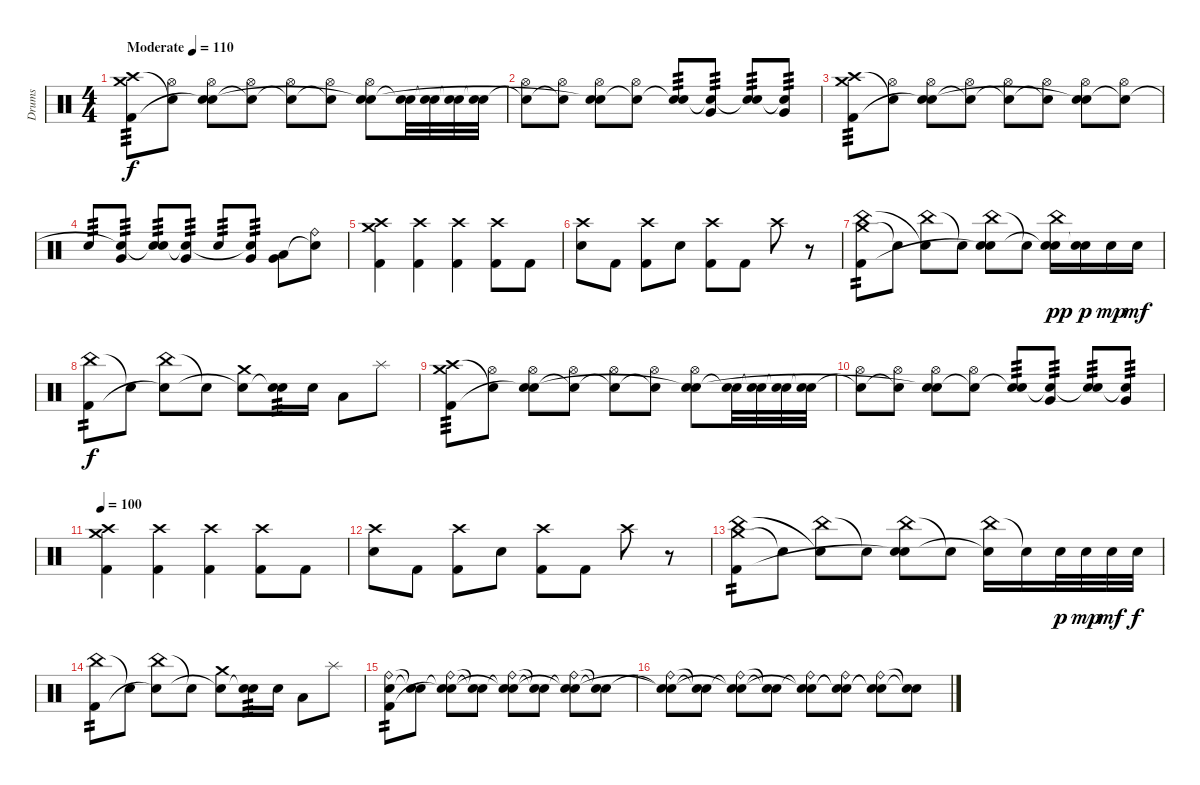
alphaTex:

\track ("Drums" "Drums") {instrument percussion}
\staff {score}
\articulation defaults
\ts (4 4)
\tempo (110 "Moderate")
\clef neutral
\ks c
("Crash medium (hit)" "Crash high (hit)" "Kick (hit) 2").8{tp 3 dy f} ("Hi-Hat (open)" "Snare (hit)"{t}).8 ("Hi-Hat (open)" "Electric Snare (hit)" "Snare (hit)"{t}).8 ("Hi-Hat (open)" "Snare (hit)"{t}).8 ("Hi-Hat (open)" "Snare (hit)"{t}).8 ("Hi-Hat (open)" "Snare (hit)"{t}).8 ("Hi-Hat (open)" "Electric Snare (hit)" "Snare (hit)"{t}).8 ("Electric Snare (hit)" "Snare (hit)"{t}).32 ("Electric Snare (hit)" "Snare (hit)"{t}).32 ("Electric Snare (hit)" "Snare (hit)"{t}).32 ("Electric Snare (hit)" "Snare (hit)"{t}).32 |
("Hi-Hat (open)" "Snare (hit)"{t}).8 ("Hi-Hat (open)" "Snare (hit)"{t}).8 ("Hi-Hat (open)" "Electric Snare (hit)" "Snare (hit)"{t}).8 ("Hi-Hat (open)" "Snare (hit)"{t}).8 ("Electric Snare (hit)" "Snare (hit)"{t}).8{tp 3} ("Very Low Tom (hit)" "Snare (hit)"{t}).8{tp 3} ("Electric Snare (hit)" "Snare (hit)"{t}).8{tp 3} ("Very Low Tom (hit)" "Snare (hit)"{t}).8{tp 3} |
("Crash medium (hit)" "Crash high (hit)" "Kick (hit) 2").8{tp 3} ("Hi-Hat (open)" "Snare (hit)"{t}).8 ("Hi-Hat (open)" "Electric Snare (hit)" "Snare (hit)"{t}).8 ("Hi-Hat (open)" "Snare (hit)"{t}).8 ("Hi-Hat (open)" "Snare (hit)"{t}).8 ("Hi-Hat (open)" "Snare (hit)"{t}).8 ("Hi-Hat (open)" "Electric Snare (hit)" "Snare (hit)"{t}).8 ("Hi-Hat (open)" "Snare (hit)"{t}).8 |
"Electric Snare (hit)".8{tp 3} ("Very Low Tom (hit)" "Snare (hit)"{t}).8{tp 3} ("Electric Snare (hit)" "Snare (hit)"{t}).8{tp 3} ("Very Low Tom (hit)" "Snare (hit)"{t}).8{tp 3} "Electric Snare (hit)".8{tp 3} ("Very Low Tom (hit)" "Snare (hit)"{t}).8{tp 3} ("Very Low Tom (hit)" "Low Floor Tom (hit)").8 ("Ride (bell)" "Snare (hit)"{t}).8 |
("Crash medium (hit)" "Crash high (hit)" "Kick (hit) 2").4 ("Crash high (hit)" "Kick (hit) 2").4 ("Crash high (hit)" "Kick (hit) 2").4 ("Crash high (hit)" "Kick (hit) 2").8 "Kick (hit) 2".8 |
("Crash high (hit)" "Electric Snare (hit)").8 "Kick (hit) 2".8 ("Crash high (hit)" "Kick (hit) 2").8 "Electric Snare (hit)".8 ("Crash high (hit)" "Kick (hit) 2").8 "Kick (hit) 2".8 "Crash high (hit)".8 r.8 |
("Crash medium (hit)" "China (hit)" "Kick (hit) 2").8{tp 2} "Snare (hit)"{t}.8 ("China (hit)" "Snare (hit)"{t}).8 "Snare (hit)"{t}.8 ("China (hit)" "Electric Snare (hit)" "Snare (hit)"{t}).8 "Snare (hit)"{t}.8 ("China (hit)" "Electric Snare (hit)" "Snare (hit)"{t}).16{dy pp} ("Electric Snare (hit)" "Snare (hit)"{t}).16{dy p} "Electric Snare (hit)".16{dy mp} "Electric Snare (hit)".16{dy mf} |
("China (hit)" "Kick (hit) 2").8{tp 2 dy f} "Snare (hit)"{t}.8 ("China (hit)" "Snare (hit)"{t}).8 "Snare (hit)"{t}.8 ("Crash medium (hit)" "Snare (hit)"{t}).8 ("Electric Snare (hit)" "Snare (hit)"{t}).16{tp 3} "Electric Snare (hit)".16 "Low Floor Tom (hit)".8 "Splash (hit)".8 |
("Crash medium (hit)" "Crash high (hit)" "Kick (hit) 2").8{tp 3} ("Hi-Hat (open)" "Snare (hit)"{t}).8 ("Hi-Hat (open)" "Electric Snare (hit)" "Snare (hit)"{t}).8 ("Hi-Hat (open)" "Snare (hit)"{t}).8 ("Hi-Hat (open)" "Snare (hit)"{t}).8 ("Hi-Hat (open)" "Snare (hit)"{t}).8 ("Hi-Hat (open)" "Electric Snare (hit)" "Snare (hit)"{t}).8 ("Electric Snare (hit)" "Snare (hit)"{t}).32 ("Electric Snare (hit)" "Snare (hit)"{t}).32 ("Electric Snare (hit)" "Snare (hit)"{t}).32 ("Electric Snare (hit)" "Snare (hit)"{t}).32 |
("Hi-Hat (open)" "Snare (hit)"{t}).8 ("Hi-Hat (open)" "Snare (hit)"{t}).8 ("Hi-Hat (open)" "Electric Snare (hit)" "Snare (hit)"{t}).8 ("Hi-Hat (open)" "Snare (hit)"{t}).8 ("Electric Snare (hit)" "Snare (hit)"{t}).8{tp 3} ("Very Low Tom (hit)" "Snare (hit)"{t}).8{tp 3} ("Electric Snare (hit)" "Snare (hit)"{t}).8{tp 3} ("Very Low Tom (hit)" "Snare (hit)"{t}).8{tp 3} |
\tempo 100
("Crash medium (hit)" "Crash high (hit)" "Kick (hit) 2").4 ("Crash high (hit)" "Kick (hit) 2").4 ("Crash high (hit)" "Kick (hit) 2").4 ("Crash high (hit)" "Kick (hit) 2").8 "Kick (hit) 2".8 |
("Crash high (hit)" "Electric Snare (hit)").8 "Kick (hit) 2".8 ("Crash high (hit)" "Kick (hit) 2").8 "Electric Snare (hit)".8 ("Crash high (hit)" "Kick (hit) 2").8 "Kick (hit) 2".8 "Crash high (hit)".8 r.8 |
("Crash medium (hit)" "China (hit)" "Kick (hit) 2").8{tp 2} "Snare (hit)"{t}.8 ("China (hit)" "Snare (hit)"{t}).8 "Snare (hit)"{t}.8 ("China (hit)" "Electric Snare (hit)" "Snare (hit)"{t}).8 "Snare (hit)"{t}.8 ("China (hit)" "Snare (hit)"{t}).16 "Snare (hit)"{t}.16 "Electric Snare (hit)".32{dy p} "Electric Snare (hit)".32{dy mp} "Electric Snare (hit)".32{dy mf} "Electric Snare (hit)".32{dy f} |
("China (hit)" "Kick (hit) 2").8{tp 2} "Snare (hit)"{t}.8 ("China (hit)" "Snare (hit)"{t}).8 "Snare (hit)"{t}.8 ("Crash medium (hit)" "Snare (hit)"{t}).8 ("Electric Snare (hit)" "Snare (hit)"{t}).16{tp 3} "Electric Snare (hit)".16 "Low Floor Tom (hit)".8 "Splash (hit)".8 |
("Ride (bell)" "Electric Snare (hit)" "Kick (hit) 2").8{tp 2} ("Snare (hit)"{t} "Snare (hit)"{t}).8 ("Ride (bell)" "Snare (hit)"{t} "Snare (hit)"{t}).8 ("Snare (hit)"{t} "Snare (hit)"{t}).8 ("Ride (bell)" "Snare (hit)"{t} "Snare (hit)"{t}).8 ("Snare (hit)"{t} "Snare (hit)"{t}).8 ("Ride (bell)" "Snare (hit)"{t} "Snare (hit)"{t}).8 ("Snare (hit)"{t} "Snare (hit)"{t}).8 |
("Ride (bell)" "Snare (hit)"{t} "Snare (hit)"{t}).8 ("Snare (hit)"{t} "Snare (hit)"{t}).8 ("Ride (bell)" "Snare (hit)"{t} "Snare (hit)"{t}).8 ("Snare (hit)"{t} "Snare (hit)"{t}).8 ("Ride (bell)" "Snare (hit)"{t} "Snare (hit)"{t}).8 ("Ride (bell)" "Snare (hit)"{t} "Snare (hit)"{t}).8 ("Ride (bell)" "Snare (hit)"{t} "Snare (hit)"{t}).8 ("Snare (hit)"{t} "Snare (hit)"{t}).8
